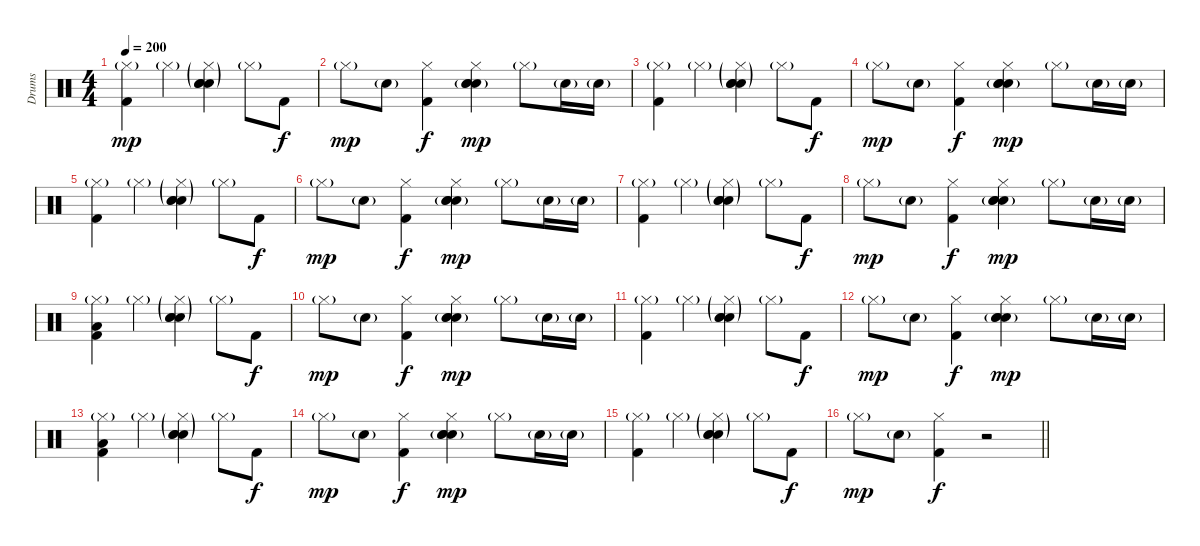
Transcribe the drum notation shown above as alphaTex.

\track ("Drums" "Drums") {instrument percussion}
\staff {score}
\articulation defaults
\ts (4 4)
\tempo 200
\clef neutral
\ks c
("Hi-Hat (closed)"{g} "Kick (hit) 2").4{dy mp} "Hi-Hat (closed)"{g}.4 ("Hi-Hat (closed)"{g} "Snare (hit) 2"{g} "Hand Clap (hit)"{g} "Electric Snare (hit)").4 "Hi-Hat (closed)"{g}.8 "Kick (hit) 2".8{dy f} |
"Hi-Hat (closed)"{g}.8{dy mp} "Electric Snare (hit)"{g}.8 ("Hi-Hat (closed)" "Kick (hit) 2").4{dy f} ("Hi-Hat (closed)" "Snare (hit) 2"{g} "Hand Clap (hit)"{g} "Electric Snare (hit)").4{dy mp} "Hi-Hat (closed)"{g}.8 "Electric Snare (hit)"{g}.16 "Electric Snare (hit)"{g}.16 |
("Hi-Hat (closed)"{g} "Kick (hit) 2").4 "Hi-Hat (closed)"{g}.4 ("Hi-Hat (closed)"{g} "Snare (hit) 2"{g} "Hand Clap (hit)"{g} "Electric Snare (hit)").4 "Hi-Hat (closed)"{g}.8 "Kick (hit) 2".8{dy f} |
"Hi-Hat (closed)"{g}.8{dy mp} "Electric Snare (hit)"{g}.8 ("Hi-Hat (closed)" "Kick (hit) 2").4{dy f} ("Hi-Hat (closed)" "Snare (hit) 2"{g} "Hand Clap (hit)"{g} "Electric Snare (hit)").4{dy mp} "Hi-Hat (closed)"{g}.8 "Electric Snare (hit)"{g}.16 "Electric Snare (hit)"{g}.16 |
("Hi-Hat (closed)"{g} "Kick (hit) 2").4 "Hi-Hat (closed)"{g}.4 ("Hi-Hat (closed)"{g} "Snare (hit) 2"{g} "Hand Clap (hit)"{g} "Electric Snare (hit)").4 "Hi-Hat (closed)"{g}.8 "Kick (hit) 2".8{dy f} |
"Hi-Hat (closed)"{g}.8{dy mp} "Electric Snare (hit)"{g}.8 ("Hi-Hat (closed)" "Kick (hit) 2").4{dy f} ("Hi-Hat (closed)" "Snare (hit) 2"{g} "Hand Clap (hit)"{g} "Electric Snare (hit)").4{dy mp} "Hi-Hat (closed)"{g}.8 "Electric Snare (hit)"{g}.16 "Electric Snare (hit)"{g}.16 |
("Hi-Hat (closed)"{g} "Kick (hit) 2").4 "Hi-Hat (closed)"{g}.4 ("Hi-Hat (closed)"{g} "Snare (hit) 2"{g} "Hand Clap (hit)"{g} "Electric Snare (hit)").4 "Hi-Hat (closed)"{g}.8 "Kick (hit) 2".8{dy f} |
"Hi-Hat (closed)"{g}.8{dy mp} "Electric Snare (hit)"{g}.8 ("Hi-Hat (closed)" "Kick (hit) 2").4{dy f} ("Hi-Hat (closed)" "Snare (hit) 2"{g} "Hand Clap (hit)"{g} "Electric Snare (hit)").4{dy mp} "Hi-Hat (closed)"{g}.8 "Electric Snare (hit)"{g}.16 "Electric Snare (hit)"{g}.16 |
("Hi-Hat (closed)"{g} "Low Floor Tom (hit)" "Kick (hit) 2").4 "Hi-Hat (closed)"{g}.4 ("Hi-Hat (closed)"{g} "Snare (hit) 2"{g} "Hand Clap (hit)"{g} "Electric Snare (hit)").4 "Hi-Hat (closed)"{g}.8 "Kick (hit) 2".8{dy f} |
"Hi-Hat (closed)"{g}.8{dy mp} "Electric Snare (hit)"{g}.8 ("Hi-Hat (closed)" "Kick (hit) 2").4{dy f} ("Hi-Hat (closed)" "Snare (hit) 2"{g} "Hand Clap (hit)"{g} "Electric Snare (hit)").4{dy mp} "Hi-Hat (closed)"{g}.8 "Electric Snare (hit)"{g}.16 "Electric Snare (hit)"{g}.16 |
("Hi-Hat (closed)"{g} "Kick (hit) 2").4 "Hi-Hat (closed)"{g}.4 ("Hi-Hat (closed)"{g} "Snare (hit) 2"{g} "Hand Clap (hit)"{g} "Electric Snare (hit)").4 "Hi-Hat (closed)"{g}.8 "Kick (hit) 2".8{dy f} |
"Hi-Hat (closed)"{g}.8{dy mp} "Electric Snare (hit)"{g}.8 ("Hi-Hat (closed)" "Kick (hit) 2").4{dy f} ("Hi-Hat (closed)" "Snare (hit) 2"{g} "Hand Clap (hit)"{g} "Electric Snare (hit)").4{dy mp} "Hi-Hat (closed)"{g}.8 "Electric Snare (hit)"{g}.16 "Electric Snare (hit)"{g}.16 |
("Hi-Hat (closed)"{g} "Low Floor Tom (hit)" "Kick (hit) 2").4 "Hi-Hat (closed)"{g}.4 ("Hi-Hat (closed)"{g} "Snare (hit) 2"{g} "Hand Clap (hit)"{g} "Electric Snare (hit)").4 "Hi-Hat (closed)"{g}.8 "Kick (hit) 2".8{dy f} |
"Hi-Hat (closed)"{g}.8{dy mp} "Electric Snare (hit)"{g}.8 ("Hi-Hat (closed)" "Kick (hit) 2").4{dy f} ("Hi-Hat (closed)" "Snare (hit) 2"{g} "Hand Clap (hit)"{g} "Electric Snare (hit)").4{dy mp} "Hi-Hat (closed)"{g}.8 "Electric Snare (hit)"{g}.16 "Electric Snare (hit)"{g}.16 |
("Hi-Hat (closed)"{g} "Kick (hit) 2").4 "Hi-Hat (closed)"{g}.4 ("Hi-Hat (closed)"{g} "Snare (hit) 2"{g} "Hand Clap (hit)"{g} "Electric Snare (hit)").4 "Hi-Hat (closed)"{g}.8 "Kick (hit) 2".8{dy f} |
\barLineRight lightlight "Hi-Hat (closed)"{g}.8{dy mp} "Electric Snare (hit)"{g}.8
("Hi-Hat (closed)" "Kick (hit) 2").4{dy f} r.2{volume 12}
